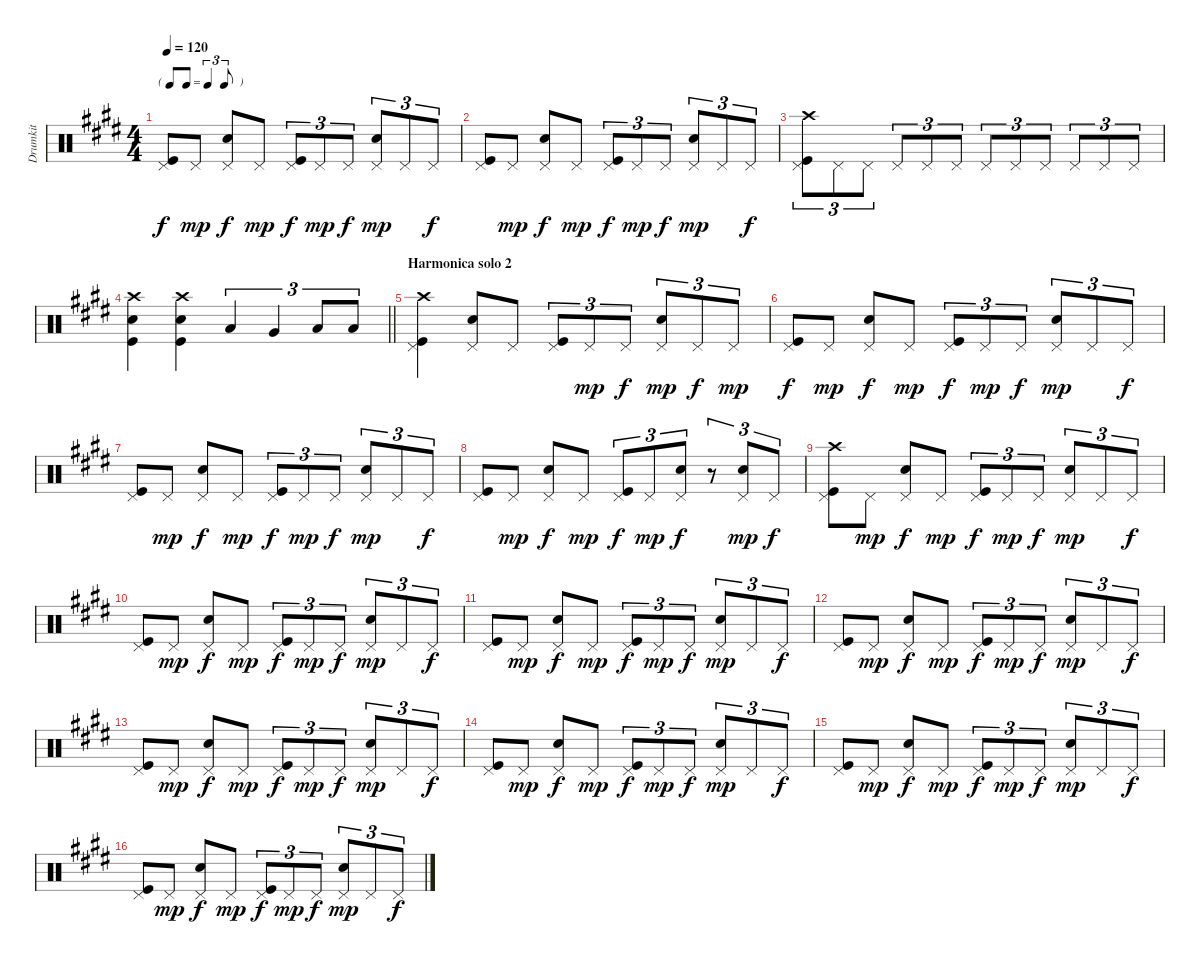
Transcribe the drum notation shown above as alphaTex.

\track ("Drumkit" "Drumkit") {instrument percussion}
\staff {score}
\articulation defaults
\ts (4 4)
\tf triplet8th
\tempo 120
\clef neutral
\ks e
("Pedal Hi-Hat (hit)" "Kick (hit)").8{dy f} "Pedal Hi-Hat (hit)".8{dy mp} ("Pedal Hi-Hat (hit)" "Snare (hit) 2").8{dy f} "Pedal Hi-Hat (hit)".8{dy mp} ("Pedal Hi-Hat (hit)" "Kick (hit)").8{tu (3 2) dy f} "Pedal Hi-Hat (hit)".8{tu (3 2) dy mp} "Pedal Hi-Hat (hit)".8{tu (3 2) dy f} ("Pedal Hi-Hat (hit)" "Snare (hit) 2").8{tu (3 2) dy mp} "Pedal Hi-Hat (hit)".8{tu (3 2)} "Pedal Hi-Hat (hit)".8{tu (3 2) dy f} |
("Pedal Hi-Hat (hit)" "Kick (hit)").8 "Pedal Hi-Hat (hit)".8{dy mp} ("Pedal Hi-Hat (hit)" "Snare (hit) 2").8{dy f} "Pedal Hi-Hat (hit)".8{dy mp} ("Pedal Hi-Hat (hit)" "Kick (hit)").8{tu (3 2) dy f} "Pedal Hi-Hat (hit)".8{tu (3 2) dy mp} "Pedal Hi-Hat (hit)".8{tu (3 2) dy f} ("Pedal Hi-Hat (hit)" "Snare (hit) 2").8{tu (3 2) dy mp} "Pedal Hi-Hat (hit)".8{tu (3 2)} "Pedal Hi-Hat (hit)".8{tu (3 2) dy f} |
("Crash high (hit)" "Pedal Hi-Hat (hit)" "Kick (hit)").8{tu (3 2)} "Pedal Hi-Hat (hit)".8{tu (3 2)} "Pedal Hi-Hat (hit)".8{tu (3 2)} "Pedal Hi-Hat (hit)".8{tu (3 2)} "Pedal Hi-Hat (hit)".8{tu (3 2)} "Pedal Hi-Hat (hit)".8{tu (3 2)} "Pedal Hi-Hat (hit)".8{tu (3 2)} "Pedal Hi-Hat (hit)".8{tu (3 2)} "Pedal Hi-Hat (hit)".8{tu (3 2)} "Pedal Hi-Hat (hit)".8{tu (3 2)} "Pedal Hi-Hat (hit)".8{tu (3 2)} "Pedal Hi-Hat (hit)".8{tu (3 2)} |
\barLineRight lightlight
("Crash high (hit)" "Snare (hit) 2" "Kick (hit)").4 ("Crash high (hit)" "Snare (hit) 2" "Kick (hit)").4 "Low Tom (hit)".4{tu (3 2)} "Very Low Tom (hit)".4{tu (3 2)} "Low Floor Tom (hit)".8{tu (3 2)} "Low Floor Tom (hit)".8{tu (3 2)} |
\section ("" "Harmonica solo 2")
("Crash high (hit)" "Pedal Hi-Hat (hit)" "Kick (hit)").4 ("Pedal Hi-Hat (hit)" "Snare (hit) 2").8 "Pedal Hi-Hat (hit)".8 ("Pedal Hi-Hat (hit)" "Kick (hit)").8{tu (3 2)} "Pedal Hi-Hat (hit)".8{tu (3 2) dy mp} "Pedal Hi-Hat (hit)".8{tu (3 2) dy f} ("Pedal Hi-Hat (hit)" "Snare (hit) 2").8{tu (3 2) dy mp} "Pedal Hi-Hat (hit)".8{tu (3 2) dy f} "Pedal Hi-Hat (hit)".8{tu (3 2) dy mp} |
("Pedal Hi-Hat (hit)" "Kick (hit)").8{dy f} "Pedal Hi-Hat (hit)".8{dy mp} ("Pedal Hi-Hat (hit)" "Snare (hit) 2").8{dy f} "Pedal Hi-Hat (hit)".8{dy mp} ("Pedal Hi-Hat (hit)" "Kick (hit)").8{tu (3 2) dy f} "Pedal Hi-Hat (hit)".8{tu (3 2) dy mp} "Pedal Hi-Hat (hit)".8{tu (3 2) dy f} ("Pedal Hi-Hat (hit)" "Snare (hit) 2").8{tu (3 2) dy mp} "Pedal Hi-Hat (hit)".8{tu (3 2)} "Pedal Hi-Hat (hit)".8{tu (3 2) dy f} |
("Pedal Hi-Hat (hit)" "Kick (hit)").8 "Pedal Hi-Hat (hit)".8{dy mp} ("Pedal Hi-Hat (hit)" "Snare (hit) 2").8{dy f} "Pedal Hi-Hat (hit)".8{dy mp} ("Pedal Hi-Hat (hit)" "Kick (hit)").8{tu (3 2) dy f} "Pedal Hi-Hat (hit)".8{tu (3 2) dy mp} "Pedal Hi-Hat (hit)".8{tu (3 2) dy f} ("Pedal Hi-Hat (hit)" "Snare (hit) 2").8{tu (3 2) dy mp} "Pedal Hi-Hat (hit)".8{tu (3 2)} "Pedal Hi-Hat (hit)".8{tu (3 2) dy f} |
("Pedal Hi-Hat (hit)" "Kick (hit)").8 "Pedal Hi-Hat (hit)".8{dy mp} ("Pedal Hi-Hat (hit)" "Snare (hit) 2").8{dy f} "Pedal Hi-Hat (hit)".8{dy mp} ("Pedal Hi-Hat (hit)" "Kick (hit)").8{tu (3 2) dy f} "Pedal Hi-Hat (hit)".8{tu (3 2) dy mp} ("Pedal Hi-Hat (hit)" "Snare (hit) 2").8{tu (3 2) dy f} r.8{tu (3 2)} ("Pedal Hi-Hat (hit)" "Snare (hit) 2").8{tu (3 2) dy mp} "Pedal Hi-Hat (hit)".8{tu (3 2) dy f} |
("Crash high (hit)" "Pedal Hi-Hat (hit)" "Kick (hit)").8 "Pedal Hi-Hat (hit)".8{dy mp} ("Pedal Hi-Hat (hit)" "Snare (hit) 2").8{dy f} "Pedal Hi-Hat (hit)".8{dy mp} ("Pedal Hi-Hat (hit)" "Kick (hit)").8{tu (3 2) dy f} "Pedal Hi-Hat (hit)".8{tu (3 2) dy mp} "Pedal Hi-Hat (hit)".8{tu (3 2) dy f} ("Pedal Hi-Hat (hit)" "Snare (hit) 2").8{tu (3 2) dy mp} "Pedal Hi-Hat (hit)".8{tu (3 2)} "Pedal Hi-Hat (hit)".8{tu (3 2) dy f} |
("Pedal Hi-Hat (hit)" "Kick (hit)").8 "Pedal Hi-Hat (hit)".8{dy mp} ("Pedal Hi-Hat (hit)" "Snare (hit) 2").8{dy f} "Pedal Hi-Hat (hit)".8{dy mp} ("Pedal Hi-Hat (hit)" "Kick (hit)").8{tu (3 2) dy f} "Pedal Hi-Hat (hit)".8{tu (3 2) dy mp} "Pedal Hi-Hat (hit)".8{tu (3 2) dy f} ("Pedal Hi-Hat (hit)" "Snare (hit) 2").8{tu (3 2) dy mp} "Pedal Hi-Hat (hit)".8{tu (3 2)} "Pedal Hi-Hat (hit)".8{tu (3 2) dy f} |
("Pedal Hi-Hat (hit)" "Kick (hit)").8 "Pedal Hi-Hat (hit)".8{dy mp} ("Pedal Hi-Hat (hit)" "Snare (hit) 2").8{dy f} "Pedal Hi-Hat (hit)".8{dy mp} ("Pedal Hi-Hat (hit)" "Kick (hit)").8{tu (3 2) dy f} "Pedal Hi-Hat (hit)".8{tu (3 2) dy mp} "Pedal Hi-Hat (hit)".8{tu (3 2) dy f} ("Pedal Hi-Hat (hit)" "Snare (hit) 2").8{tu (3 2) dy mp} "Pedal Hi-Hat (hit)".8{tu (3 2)} "Pedal Hi-Hat (hit)".8{tu (3 2) dy f} |
("Pedal Hi-Hat (hit)" "Kick (hit)").8 "Pedal Hi-Hat (hit)".8{dy mp} ("Pedal Hi-Hat (hit)" "Snare (hit) 2").8{dy f} "Pedal Hi-Hat (hit)".8{dy mp} ("Pedal Hi-Hat (hit)" "Kick (hit)").8{tu (3 2) dy f} "Pedal Hi-Hat (hit)".8{tu (3 2) dy mp} "Pedal Hi-Hat (hit)".8{tu (3 2) dy f} ("Pedal Hi-Hat (hit)" "Snare (hit) 2").8{tu (3 2) dy mp} "Pedal Hi-Hat (hit)".8{tu (3 2)} "Pedal Hi-Hat (hit)".8{tu (3 2) dy f} |
("Pedal Hi-Hat (hit)" "Kick (hit)").8 "Pedal Hi-Hat (hit)".8{dy mp} ("Pedal Hi-Hat (hit)" "Snare (hit) 2").8{dy f} "Pedal Hi-Hat (hit)".8{dy mp} ("Pedal Hi-Hat (hit)" "Kick (hit)").8{tu (3 2) dy f} "Pedal Hi-Hat (hit)".8{tu (3 2) dy mp} "Pedal Hi-Hat (hit)".8{tu (3 2) dy f} ("Pedal Hi-Hat (hit)" "Snare (hit) 2").8{tu (3 2) dy mp} "Pedal Hi-Hat (hit)".8{tu (3 2)} "Pedal Hi-Hat (hit)".8{tu (3 2) dy f} |
("Pedal Hi-Hat (hit)" "Kick (hit)").8 "Pedal Hi-Hat (hit)".8{dy mp} ("Pedal Hi-Hat (hit)" "Snare (hit) 2").8{dy f} "Pedal Hi-Hat (hit)".8{dy mp} ("Pedal Hi-Hat (hit)" "Kick (hit)").8{tu (3 2) dy f} "Pedal Hi-Hat (hit)".8{tu (3 2) dy mp} "Pedal Hi-Hat (hit)".8{tu (3 2) dy f} ("Pedal Hi-Hat (hit)" "Snare (hit) 2").8{tu (3 2) dy mp} "Pedal Hi-Hat (hit)".8{tu (3 2)} "Pedal Hi-Hat (hit)".8{tu (3 2) dy f} |
("Pedal Hi-Hat (hit)" "Kick (hit)").8 "Pedal Hi-Hat (hit)".8{dy mp} ("Pedal Hi-Hat (hit)" "Snare (hit) 2").8{dy f} "Pedal Hi-Hat (hit)".8{dy mp} ("Pedal Hi-Hat (hit)" "Kick (hit)").8{tu (3 2) dy f} "Pedal Hi-Hat (hit)".8{tu (3 2) dy mp} "Pedal Hi-Hat (hit)".8{tu (3 2) dy f} ("Pedal Hi-Hat (hit)" "Snare (hit) 2").8{tu (3 2) dy mp} "Pedal Hi-Hat (hit)".8{tu (3 2)} "Pedal Hi-Hat (hit)".8{tu (3 2) dy f} |
("Pedal Hi-Hat (hit)" "Kick (hit)").8 "Pedal Hi-Hat (hit)".8{dy mp} ("Pedal Hi-Hat (hit)" "Snare (hit) 2").8{dy f} "Pedal Hi-Hat (hit)".8{dy mp} ("Pedal Hi-Hat (hit)" "Kick (hit)").8{tu (3 2) dy f} "Pedal Hi-Hat (hit)".8{tu (3 2) dy mp} "Pedal Hi-Hat (hit)".8{tu (3 2) dy f} ("Pedal Hi-Hat (hit)" "Snare (hit) 2").8{tu (3 2) dy mp} "Pedal Hi-Hat (hit)".8{tu (3 2)} "Pedal Hi-Hat (hit)".8{tu (3 2) dy f}
